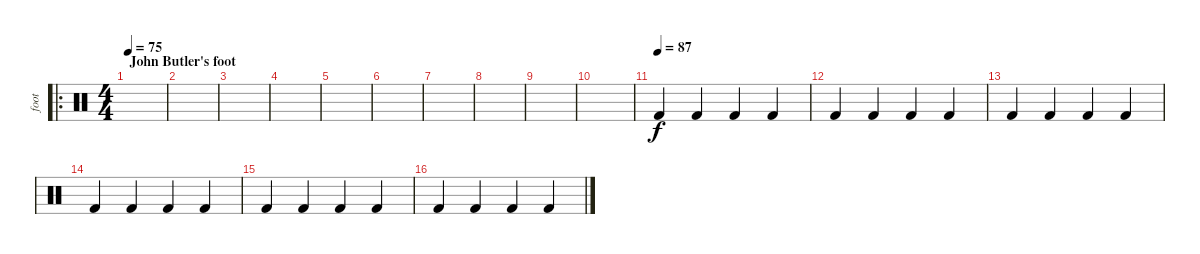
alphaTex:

\track ("foot" "foot") {instrument percussion}
\staff {score}
\articulation defaults
\ro
\ts (4 4)
\section ("" "John Butler's foot")
\tempo 75
\clef neutral
\ks c
|
|
|
|
|
|
|
|
|
|
\tempo (87)
"Kick (hit) 2".4 "Kick (hit) 2".4 "Kick (hit) 2".4 "Kick (hit) 2".4 |
"Kick (hit) 2".4 "Kick (hit) 2".4 "Kick (hit) 2".4 "Kick (hit) 2".4 |
"Kick (hit) 2".4 "Kick (hit) 2".4 "Kick (hit) 2".4 "Kick (hit) 2".4 |
"Kick (hit) 2".4 "Kick (hit) 2".4 "Kick (hit) 2".4 "Kick (hit) 2".4 |
"Kick (hit) 2".4 "Kick (hit) 2".4 "Kick (hit) 2".4 "Kick (hit) 2".4 |
"Kick (hit) 2".4 "Kick (hit) 2".4 "Kick (hit) 2".4 "Kick (hit) 2".4
